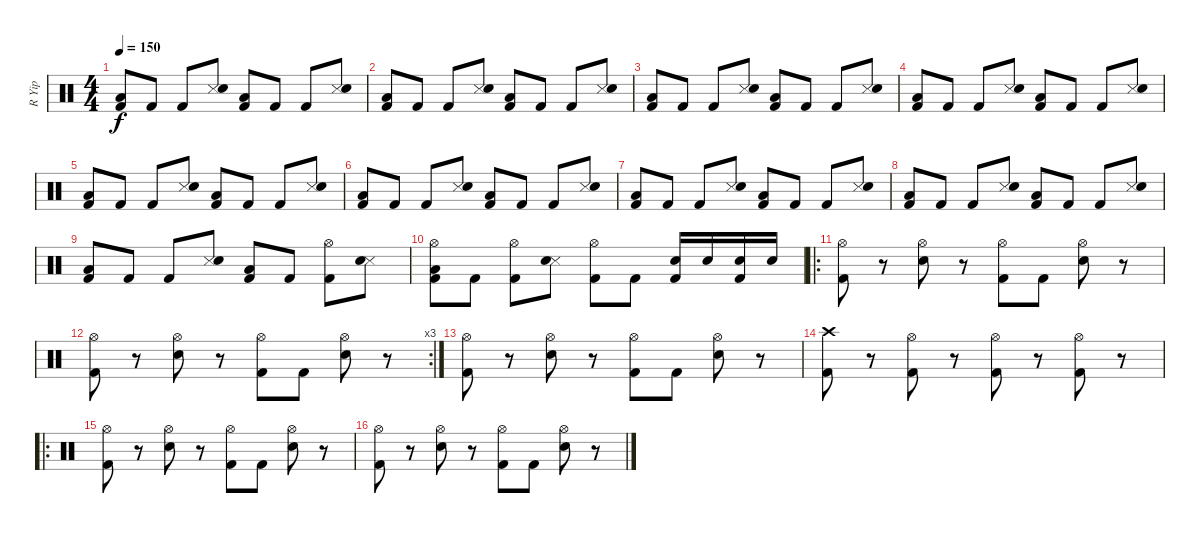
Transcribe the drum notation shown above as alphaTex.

\track ("R Yip" "R Yip") {instrument percussion}
\staff {score}
\articulation defaults
\ts (4 4)
\tempo 150
\clef neutral
\ks c
("Low Floor Tom (hit)" "Kick (hit) 2").8{dy f} "Kick (hit) 2".8 "Kick (hit) 2".8 ("Metronome (hit)" "Hand Clap (hit)").8 ("Low Floor Tom (hit)" "Kick (hit) 2").8 "Kick (hit) 2".8 "Kick (hit) 2".8 ("Metronome (hit)" "Hand Clap (hit)").8 |
("Low Floor Tom (hit)" "Kick (hit) 2").8 "Kick (hit) 2".8 "Kick (hit) 2".8 ("Metronome (hit)" "Hand Clap (hit)").8 ("Low Floor Tom (hit)" "Kick (hit) 2").8 "Kick (hit) 2".8 "Kick (hit) 2".8 ("Metronome (hit)" "Hand Clap (hit)").8 |
("Low Floor Tom (hit)" "Kick (hit) 2").8 "Kick (hit) 2".8 "Kick (hit) 2".8 ("Metronome (hit)" "Hand Clap (hit)").8 ("Low Floor Tom (hit)" "Kick (hit) 2").8 "Kick (hit) 2".8 "Kick (hit) 2".8 ("Metronome (hit)" "Hand Clap (hit)").8 |
("Low Floor Tom (hit)" "Kick (hit) 2").8 "Kick (hit) 2".8 "Kick (hit) 2".8 ("Metronome (hit)" "Hand Clap (hit)").8 ("Low Floor Tom (hit)" "Kick (hit) 2").8 "Kick (hit) 2".8 "Kick (hit) 2".8 ("Metronome (hit)" "Hand Clap (hit)").8 |
("Low Floor Tom (hit)" "Kick (hit) 2").8 "Kick (hit) 2".8 "Kick (hit) 2".8 ("Metronome (hit)" "Hand Clap (hit)").8 ("Low Floor Tom (hit)" "Kick (hit) 2").8 "Kick (hit) 2".8 "Kick (hit) 2".8 ("Metronome (hit)" "Hand Clap (hit)").8 |
("Low Floor Tom (hit)" "Kick (hit) 2").8 "Kick (hit) 2".8 "Kick (hit) 2".8 ("Metronome (hit)" "Hand Clap (hit)").8 ("Low Floor Tom (hit)" "Kick (hit) 2").8 "Kick (hit) 2".8 "Kick (hit) 2".8 ("Metronome (hit)" "Hand Clap (hit)").8 |
("Low Floor Tom (hit)" "Kick (hit) 2").8 "Kick (hit) 2".8 "Kick (hit) 2".8 ("Metronome (hit)" "Hand Clap (hit)").8 ("Low Floor Tom (hit)" "Kick (hit) 2").8 "Kick (hit) 2".8 "Kick (hit) 2".8 ("Metronome (hit)" "Hand Clap (hit)").8 |
("Low Floor Tom (hit)" "Kick (hit) 2").8 "Kick (hit) 2".8 "Kick (hit) 2".8 ("Metronome (hit)" "Hand Clap (hit)").8 ("Low Floor Tom (hit)" "Kick (hit) 2").8 "Kick (hit) 2".8 "Kick (hit) 2".8 ("Metronome (hit)" "Hand Clap (hit)").8 |
("Low Floor Tom (hit)" "Kick (hit) 2").8 "Kick (hit) 2".8 "Kick (hit) 2".8 ("Metronome (hit)" "Hand Clap (hit)").8 ("Low Floor Tom (hit)" "Kick (hit) 2").8 "Kick (hit) 2".8 ("Hi-Hat (open)" "Kick (hit) 2").8 ("Metronome (hit)" "Hand Clap (hit)").8 |
("Hi-Hat (open)" "Low Floor Tom (hit)" "Kick (hit) 2").8 "Kick (hit) 2".8 ("Hi-Hat (open)" "Kick (hit) 2").8 ("Metronome (hit)" "Hand Clap (hit)").8 ("Hi-Hat (open)" "Kick (hit) 2").8 "Kick (hit) 2".8 ("Electric Snare (hit)" "Kick (hit) 2").16 "Electric Snare (hit)".16 ("Electric Snare (hit)" "Kick (hit) 2").16 "Electric Snare (hit)".16 |
\ro
("Hi-Hat (open)" "Kick (hit) 2").8 r.8 ("Hi-Hat (open)" "Electric Snare (hit)").8 r.8 ("Hi-Hat (open)" "Kick (hit) 2").8 "Kick (hit) 2".8 ("Hi-Hat (open)" "Electric Snare (hit)").8 r.8 |
\rc 3
("Hi-Hat (open)" "Kick (hit) 2").8 r.8 ("Hi-Hat (open)" "Electric Snare (hit)").8 r.8 ("Hi-Hat (open)" "Kick (hit) 2").8 "Kick (hit) 2".8 ("Hi-Hat (open)" "Electric Snare (hit)").8 r.8 |
("Hi-Hat (open)" "Kick (hit) 2").8 r.8 ("Hi-Hat (open)" "Electric Snare (hit)").8 r.8 ("Hi-Hat (open)" "Kick (hit) 2").8 "Kick (hit) 2".8 ("Hi-Hat (open)" "Electric Snare (hit)").8 r.8 |
("Crash high (hit)" "Kick (hit) 2").8 r.8 ("Hi-Hat (open)" "Kick (hit) 2").8 r.8 ("Hi-Hat (open)" "Kick (hit) 2").8 r.8 ("Hi-Hat (open)" "Kick (hit) 2").8 r.8 |
\ro
("Hi-Hat (open)" "Kick (hit) 2").8 r.8 ("Hi-Hat (open)" "Electric Snare (hit)").8 r.8 ("Hi-Hat (open)" "Kick (hit) 2").8 "Kick (hit) 2".8 ("Hi-Hat (open)" "Electric Snare (hit)").8 r.8 |
("Hi-Hat (open)" "Kick (hit) 2").8 r.8 ("Hi-Hat (open)" "Electric Snare (hit)").8 r.8 ("Hi-Hat (open)" "Kick (hit) 2").8 "Kick (hit) 2".8 ("Hi-Hat (open)" "Electric Snare (hit)").8 r.8
